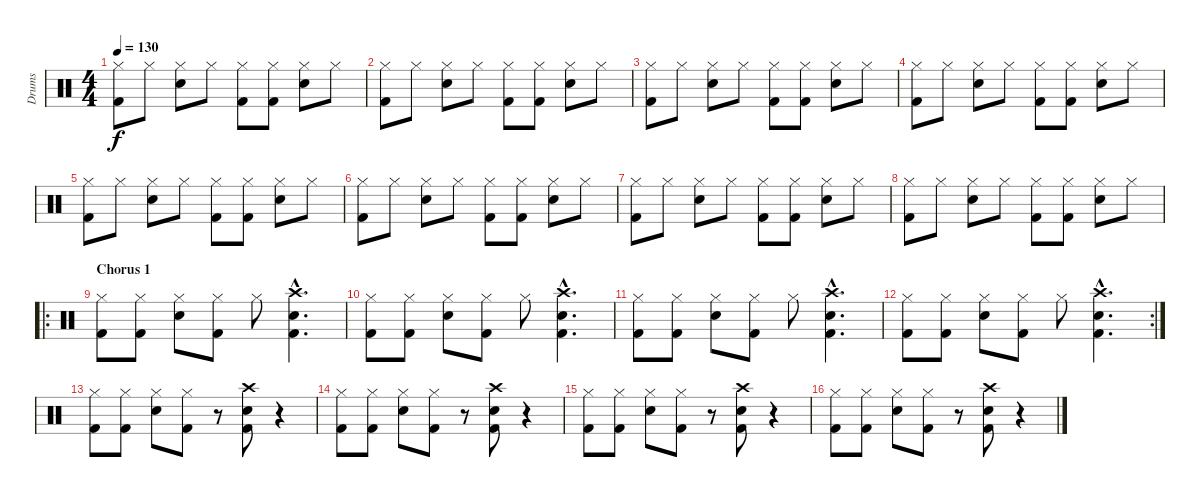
\track ("Drums" "Drums") {instrument percussion}
\staff {score}
\articulation defaults
\ts (4 4)
\tempo 130
\clef neutral
\ks c
("Kick (hit) 2" "Hi-Hat (closed)").8{dy f} "Hi-Hat (closed)".8 ("Electric Snare (hit)" "Hi-Hat (closed)").8 "Hi-Hat (closed)".8 ("Kick (hit) 2" "Hi-Hat (closed)").8 ("Kick (hit) 2" "Hi-Hat (closed)").8 ("Electric Snare (hit)" "Hi-Hat (closed)").8 "Hi-Hat (closed)".8 |
("Kick (hit) 2" "Hi-Hat (closed)").8 "Hi-Hat (closed)".8 ("Electric Snare (hit)" "Hi-Hat (closed)").8 "Hi-Hat (closed)".8 ("Kick (hit) 2" "Hi-Hat (closed)").8 ("Kick (hit) 2" "Hi-Hat (closed)").8 ("Electric Snare (hit)" "Hi-Hat (closed)").8 "Hi-Hat (closed)".8 |
("Kick (hit) 2" "Hi-Hat (closed)").8 "Hi-Hat (closed)".8 ("Electric Snare (hit)" "Hi-Hat (closed)").8 "Hi-Hat (closed)".8 ("Kick (hit) 2" "Hi-Hat (closed)").8 ("Kick (hit) 2" "Hi-Hat (closed)").8 ("Electric Snare (hit)" "Hi-Hat (closed)").8 "Hi-Hat (closed)".8 |
("Kick (hit) 2" "Hi-Hat (closed)").8 "Hi-Hat (closed)".8 ("Electric Snare (hit)" "Hi-Hat (closed)").8 "Hi-Hat (closed)".8 ("Kick (hit) 2" "Hi-Hat (closed)").8 ("Kick (hit) 2" "Hi-Hat (closed)").8 ("Electric Snare (hit)" "Hi-Hat (closed)").8 "Hi-Hat (closed)".8 |
("Kick (hit) 2" "Hi-Hat (closed)").8 "Hi-Hat (closed)".8 ("Electric Snare (hit)" "Hi-Hat (closed)").8 "Hi-Hat (closed)".8 ("Kick (hit) 2" "Hi-Hat (closed)").8 ("Kick (hit) 2" "Hi-Hat (closed)").8 ("Electric Snare (hit)" "Hi-Hat (closed)").8 "Hi-Hat (closed)".8 |
("Kick (hit) 2" "Hi-Hat (closed)").8 "Hi-Hat (closed)".8 ("Electric Snare (hit)" "Hi-Hat (closed)").8 "Hi-Hat (closed)".8 ("Kick (hit) 2" "Hi-Hat (closed)").8 ("Kick (hit) 2" "Hi-Hat (closed)").8 ("Electric Snare (hit)" "Hi-Hat (closed)").8 "Hi-Hat (closed)".8 |
("Kick (hit) 2" "Hi-Hat (closed)").8 "Hi-Hat (closed)".8 ("Electric Snare (hit)" "Hi-Hat (closed)").8 "Hi-Hat (closed)".8 ("Kick (hit) 2" "Hi-Hat (closed)").8 ("Kick (hit) 2" "Hi-Hat (closed)").8 ("Electric Snare (hit)" "Hi-Hat (closed)").8 "Hi-Hat (closed)".8 |
("Kick (hit) 2" "Hi-Hat (closed)").8 "Hi-Hat (closed)".8 ("Electric Snare (hit)" "Hi-Hat (closed)").8 "Hi-Hat (closed)".8 ("Kick (hit) 2" "Hi-Hat (closed)").8 ("Kick (hit) 2" "Hi-Hat (closed)").8 ("Electric Snare (hit)" "Hi-Hat (closed)").8 "Hi-Hat (closed)".8 |
\ro
\section ("" "Chorus 1")
("Kick (hit) 2" "Hi-Hat (closed)").8 ("Kick (hit) 2" "Hi-Hat (closed)").8 ("Electric Snare (hit)" "Hi-Hat (closed)").8 ("Kick (hit) 2" "Hi-Hat (closed)").8 "Hi-Hat (closed)".8 ("Kick (hit) 2"{hac} "Electric Snare (hit)"{hac} "Crash high (hit)"{hac}).4{d} |
("Kick (hit) 2" "Hi-Hat (closed)").8 ("Kick (hit) 2" "Hi-Hat (closed)").8 ("Electric Snare (hit)" "Hi-Hat (closed)").8 ("Kick (hit) 2" "Hi-Hat (closed)").8 "Hi-Hat (closed)".8 ("Kick (hit) 2"{hac} "Electric Snare (hit)"{hac} "Crash high (hit)"{hac}).4{d} |
("Kick (hit) 2" "Hi-Hat (closed)").8 ("Kick (hit) 2" "Hi-Hat (closed)").8 ("Electric Snare (hit)" "Hi-Hat (closed)").8 ("Kick (hit) 2" "Hi-Hat (closed)").8 "Hi-Hat (closed)".8 ("Kick (hit) 2"{hac} "Electric Snare (hit)"{hac} "Crash high (hit)"{hac}).4{d} |
\rc 2
("Kick (hit) 2" "Hi-Hat (closed)").8 ("Kick (hit) 2" "Hi-Hat (closed)").8 ("Electric Snare (hit)" "Hi-Hat (closed)").8 ("Kick (hit) 2" "Hi-Hat (closed)").8 "Hi-Hat (closed)".8 ("Kick (hit) 2"{hac} "Electric Snare (hit)"{hac} "Crash high (hit)"{hac}).4{d} |
("Kick (hit) 2" "Hi-Hat (closed)").8 ("Kick (hit) 2" "Hi-Hat (closed)").8 ("Electric Snare (hit)" "Hi-Hat (closed)").8 ("Kick (hit) 2" "Hi-Hat (closed)").8 r.8 ("Kick (hit) 2" "Electric Snare (hit)" "Crash high (hit)").8 r.4 |
("Kick (hit) 2" "Hi-Hat (closed)").8 ("Kick (hit) 2" "Hi-Hat (closed)").8 ("Electric Snare (hit)" "Hi-Hat (closed)").8 ("Kick (hit) 2" "Hi-Hat (closed)").8 r.8 ("Kick (hit) 2" "Electric Snare (hit)" "Crash high (hit)").8 r.4 |
("Kick (hit) 2" "Hi-Hat (closed)").8 ("Kick (hit) 2" "Hi-Hat (closed)").8 ("Electric Snare (hit)" "Hi-Hat (closed)").8 ("Kick (hit) 2" "Hi-Hat (closed)").8 r.8 ("Kick (hit) 2" "Electric Snare (hit)" "Crash high (hit)").8 r.4 |
("Kick (hit) 2" "Hi-Hat (closed)").8 ("Kick (hit) 2" "Hi-Hat (closed)").8 ("Electric Snare (hit)" "Hi-Hat (closed)").8 ("Kick (hit) 2" "Hi-Hat (closed)").8 r.8 ("Kick (hit) 2" "Electric Snare (hit)" "Crash high (hit)").8 r.4
